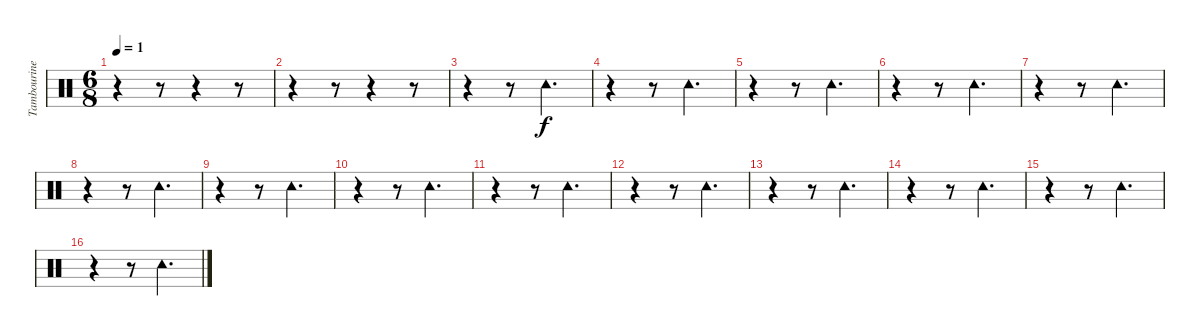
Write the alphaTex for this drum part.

\track ("Tambourine" "Tambourine") {instrument percussion}
\staff {score}
\articulation defaults
\ts (6 8)
\tempo 1
\clef neutral
\ks c
r.4{dy f} r.8 r.4 r.8 |
r.4 r.8 r.4 r.8 |
r.4 r.8 "Tambourine (hit)".4{d} |
r.4 r.8 "Tambourine (hit)".4{d} |
r.4 r.8 "Tambourine (hit)".4{d} |
r.4 r.8 "Tambourine (hit)".4{d} |
r.4 r.8 "Tambourine (hit)".4{d} |
r.4 r.8 "Tambourine (hit)".4{d} |
r.4 r.8 "Tambourine (hit)".4{d} |
r.4 r.8 "Tambourine (hit)".4{d} |
r.4 r.8 "Tambourine (hit)".4{d} |
r.4 r.8 "Tambourine (hit)".4{d} |
r.4 r.8 "Tambourine (hit)".4{d} |
r.4 r.8 "Tambourine (hit)".4{d} |
r.4 r.8 "Tambourine (hit)".4{d} |
r.4 r.8 "Tambourine (hit)".4{d}
